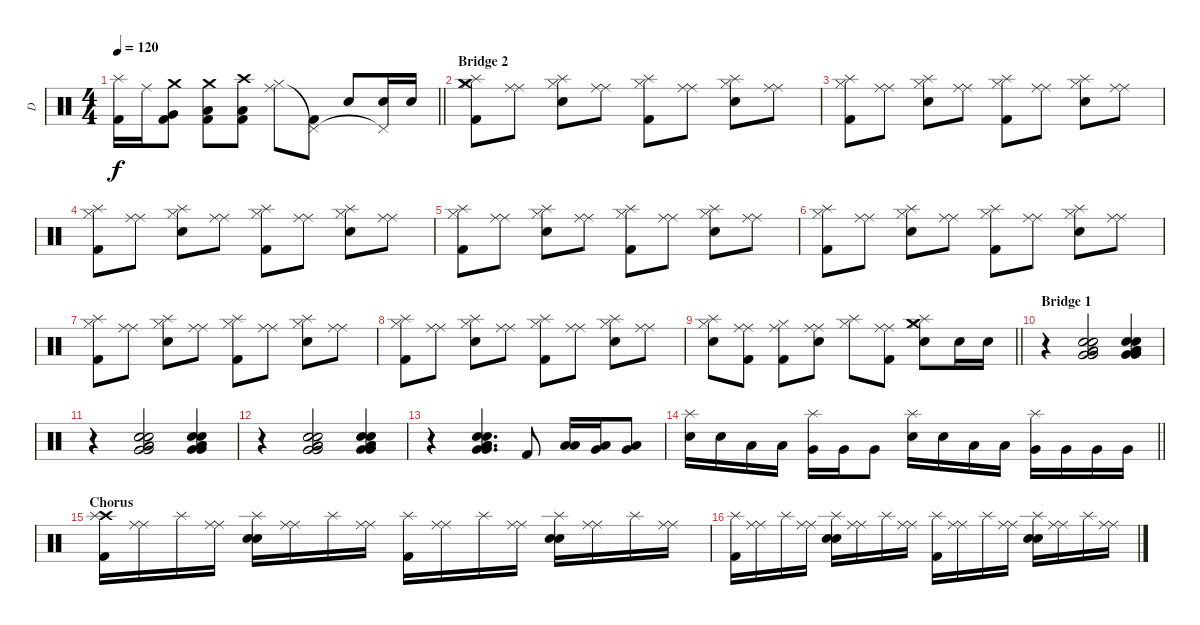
\track ("D" "D") {instrument percussion}
\staff {score}
\articulation defaults
\ts (4 4)
\tempo 120
\clef neutral
\barLineRight lightlight
\ks c
("Kick (hit) 2" "Splash (hit)").16{dy f} "Ride (middle)".16 ("Crash medium (hit)" "Very Low Tom (hit)" "Kick (hit) 2").8 ("Crash medium (hit)" "Low Tom (hit)" "Kick (hit) 2").8 ("Crash high (hit)" "Low Tom (hit)" "Kick (hit) 2").8 ("Hi-Hat (closed)" "Ride (middle)").8 ("Kick (hit) 2" "Pedal Hi-Hat (hit)"{t}).8 "Electric Snare (hit)".8 ("Electric Snare (hit)" "Pedal Hi-Hat (hit)"{t}).16 "Electric Snare (hit)".16 |
\section ("" "Bridge 2")
("Crash medium (hit)" "Kick (hit) 2" "Splash (hit)" "Hi-Hat (closed)").8 ("Ride (middle)" "Ride (middle)").8 ("Electric Snare (hit)" "Splash (hit)" "Hi-Hat (closed)").8 ("Ride (middle)" "Ride (middle)").8 ("Kick (hit) 2" "Splash (hit)" "Hi-Hat (closed)").8 ("Ride (middle)" "Ride (middle)").8 ("Electric Snare (hit)" "Splash (hit)" "Hi-Hat (closed)").8 ("Ride (middle)" "Ride (middle)").8 |
("Kick (hit) 2" "Splash (hit)" "Hi-Hat (closed)").8 ("Ride (middle)" "Ride (middle)").8 ("Electric Snare (hit)" "Splash (hit)" "Hi-Hat (closed)").8 ("Ride (middle)" "Ride (middle)").8 ("Kick (hit) 2" "Splash (hit)" "Hi-Hat (closed)").8 ("Ride (middle)" "Ride (middle)").8 ("Electric Snare (hit)" "Splash (hit)" "Hi-Hat (closed)").8 ("Ride (middle)" "Ride (middle)").8 |
("Kick (hit) 2" "Splash (hit)" "Hi-Hat (closed)").8 ("Ride (middle)" "Ride (middle)").8 ("Electric Snare (hit)" "Splash (hit)" "Hi-Hat (closed)").8 ("Ride (middle)" "Ride (middle)").8 ("Kick (hit) 2" "Splash (hit)" "Hi-Hat (closed)").8 ("Ride (middle)" "Ride (middle)").8 ("Electric Snare (hit)" "Splash (hit)" "Hi-Hat (closed)").8 ("Ride (middle)" "Ride (middle)").8 |
("Kick (hit) 2" "Splash (hit)" "Hi-Hat (closed)").8 ("Ride (middle)" "Ride (middle)").8 ("Electric Snare (hit)" "Splash (hit)" "Hi-Hat (closed)").8 ("Ride (middle)" "Ride (middle)").8 ("Kick (hit) 2" "Splash (hit)" "Hi-Hat (closed)").8 ("Ride (middle)" "Ride (middle)").8 ("Electric Snare (hit)" "Splash (hit)" "Hi-Hat (closed)").8 ("Ride (middle)" "Ride (middle)").8 |
("Kick (hit) 2" "Splash (hit)" "Hi-Hat (closed)").8 ("Ride (middle)" "Ride (middle)").8 ("Electric Snare (hit)" "Splash (hit)" "Hi-Hat (closed)").8 ("Ride (middle)" "Ride (middle)").8 ("Kick (hit) 2" "Splash (hit)" "Hi-Hat (closed)").8 ("Ride (middle)" "Ride (middle)").8 ("Electric Snare (hit)" "Splash (hit)" "Hi-Hat (closed)").8 ("Ride (middle)" "Ride (middle)").8 |
("Kick (hit) 2" "Splash (hit)" "Hi-Hat (closed)").8 ("Ride (middle)" "Ride (middle)").8 ("Electric Snare (hit)" "Splash (hit)" "Hi-Hat (closed)").8 ("Ride (middle)" "Ride (middle)").8 ("Kick (hit) 2" "Splash (hit)" "Hi-Hat (closed)").8 ("Ride (middle)" "Ride (middle)").8 ("Electric Snare (hit)" "Splash (hit)" "Hi-Hat (closed)").8 ("Ride (middle)" "Ride (middle)").8 |
("Kick (hit) 2" "Splash (hit)" "Hi-Hat (closed)").8 ("Ride (middle)" "Ride (middle)").8 ("Electric Snare (hit)" "Splash (hit)" "Hi-Hat (closed)").8 ("Ride (middle)" "Ride (middle)").8 ("Kick (hit) 2" "Splash (hit)" "Hi-Hat (closed)").8 ("Ride (middle)" "Ride (middle)").8 ("Electric Snare (hit)" "Splash (hit)" "Hi-Hat (closed)").8 ("Ride (middle)" "Ride (middle)").8 |
\barLineRight lightlight
("Electric Snare (hit)" "Splash (hit)" "Hi-Hat (closed)").8 ("Kick (hit) 2" "Ride (middle)" "Ride (middle)").8 ("Kick (hit) 2" "Ride (middle)" "Hi-Hat (closed)").8 ("Electric Snare (hit)" "Ride (middle)" "Ride (middle)").8 ("Splash (hit)" "Hi-Hat (closed)").8 ("Kick (hit) 2" "Ride (middle)" "Ride (middle)").8 ("Crash medium (hit)" "Electric Snare (hit)" "Splash (hit)" "Hi-Hat (closed)").8 "Electric Snare (hit)".16 "Electric Snare (hit)".16 |
\section ("" "Bridge 1")
r.4 ("Low Tom (hit)" "Low Tom (hit)" "Very Low Tom (hit)" "Very Low Tom (hit)" "Electric Snare (hit)" "Electric Snare (hit)").2 ("Low Tom (hit)" "Low Tom (hit)" "Very Low Tom (hit)" "Very Low Tom (hit)" "Electric Snare (hit)" "Electric Snare (hit)").4 |
r.4 ("Low Tom (hit)" "Low Tom (hit)" "Very Low Tom (hit)" "Very Low Tom (hit)" "Electric Snare (hit)" "Electric Snare (hit)").2 ("Low Tom (hit)" "Low Tom (hit)" "Very Low Tom (hit)" "Very Low Tom (hit)" "Electric Snare (hit)" "Electric Snare (hit)").4 |
r.4 ("Low Tom (hit)" "Low Tom (hit)" "Very Low Tom (hit)" "Very Low Tom (hit)" "Electric Snare (hit)" "Electric Snare (hit)").2 ("Low Tom (hit)" "Low Tom (hit)" "Very Low Tom (hit)" "Very Low Tom (hit)" "Electric Snare (hit)" "Electric Snare (hit)").4 |
r.4 ("Low Tom (hit)" "Low Tom (hit)" "Very Low Tom (hit)" "Very Low Tom (hit)" "Electric Snare (hit)" "Electric Snare (hit)").4{d} "Kick (hit) 2".8 ("Low Tom (hit)" "Low Floor Tom (hit)").16 ("Very Low Tom (hit)" "Low Floor Tom (hit)").16 ("Very Low Tom (hit)" "Low Floor Tom (hit)").8 |
\barLineRight lightlight
("Electric Snare (hit)" "Splash (hit)").16 "Electric Snare (hit)".16 "Low Tom (hit)".16 "Low Tom (hit)".16 ("Very Low Tom (hit)" "Splash (hit)").16 "Very Low Tom (hit)".16 "Very Low Tom (hit)".8 ("Electric Snare (hit)" "Splash (hit)").16 "Electric Snare (hit)".16 "Low Tom (hit)".16 "Low Tom (hit)".16 ("Very Low Tom (hit)" "Splash (hit)").16 "Very Low Tom (hit)".16 "Very Low Tom (hit)".16 "Very Low Tom (hit)".16 |
\section ("" "Chorus")
("Crash high (hit)" "Kick (hit) 2" "Splash (hit)").16 ("Ride (middle)" "Ride (middle)").16 "Splash (hit)".16 ("Ride (middle)" "Ride (middle)").16 ("Electric Snare (hit)" "Electric Snare (hit)" "Splash (hit)").16 ("Ride (middle)" "Ride (middle)").16 "Splash (hit)".16 ("Ride (middle)" "Ride (middle)").16 ("Kick (hit) 2" "Splash (hit)").16 ("Ride (middle)" "Ride (middle)").16 "Splash (hit)".16 ("Ride (middle)" "Ride (middle)").16 ("Electric Snare (hit)" "Electric Snare (hit)" "Splash (hit)").16 ("Ride (middle)" "Ride (middle)").16 "Splash (hit)".16 ("Ride (middle)" "Ride (middle)").16 |
("Kick (hit) 2" "Splash (hit)").16 ("Ride (middle)" "Ride (middle)").16 "Splash (hit)".16 ("Ride (middle)" "Ride (middle)").16 ("Electric Snare (hit)" "Electric Snare (hit)" "Splash (hit)").16 ("Ride (middle)" "Ride (middle)").16 "Splash (hit)".16 ("Ride (middle)" "Ride (middle)").16 ("Kick (hit) 2" "Splash (hit)").16 ("Ride (middle)" "Ride (middle)").16 "Splash (hit)".16 ("Ride (middle)" "Ride (middle)").16 ("Electric Snare (hit)" "Electric Snare (hit)" "Splash (hit)").16 ("Ride (middle)" "Ride (middle)").16 "Splash (hit)".16 ("Ride (middle)" "Ride (middle)").16
